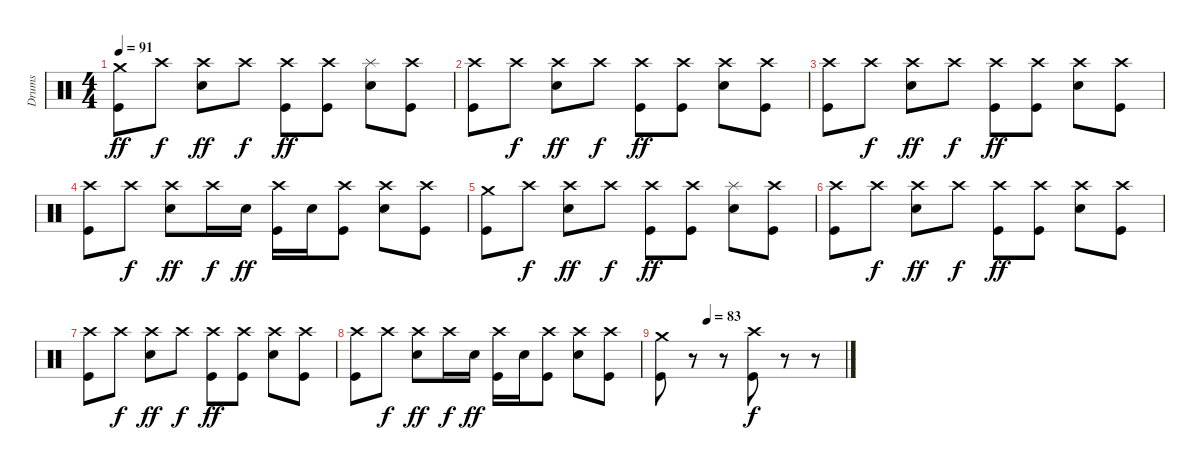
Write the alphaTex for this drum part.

\track ("Drums" "Drums") {instrument percussion}
\staff {score}
\articulation defaults
\ts (4 4)
\tempo 91
\clef neutral
\ks c
("Crash medium (hit)" "Kick (hit)").8{dy ff} "Crash high (hit)".8{dy f} ("Crash high (hit)" "Electric Snare (hit)").8{dy ff} "Crash high (hit)".8{dy f} ("Crash high (hit)" "Kick (hit)").8{dy ff} ("Crash high (hit)" "Kick (hit)").8 ("Splash (hit)" "Electric Snare (hit)").8 ("Crash high (hit)" "Kick (hit)").8 |
("Crash high (hit)" "Kick (hit)").8 "Crash high (hit)".8{dy f} ("Crash high (hit)" "Electric Snare (hit)").8{dy ff} "Crash high (hit)".8{dy f} ("Crash high (hit)" "Kick (hit)").8{dy ff} ("Crash high (hit)" "Kick (hit)").8 ("Crash high (hit)" "Electric Snare (hit)").8 ("Crash high (hit)" "Kick (hit)").8 |
("Crash high (hit)" "Kick (hit)").8 "Crash high (hit)".8{dy f} ("Crash high (hit)" "Electric Snare (hit)").8{dy ff} "Crash high (hit)".8{dy f} ("Crash high (hit)" "Kick (hit)").8{dy ff} ("Crash high (hit)" "Kick (hit)").8 ("Crash high (hit)" "Electric Snare (hit)").8 ("Crash high (hit)" "Kick (hit)").8 |
("Crash high (hit)" "Kick (hit)").8 "Crash high (hit)".8{dy f} ("Crash high (hit)" "Electric Snare (hit)").8{dy ff} "Crash high (hit)".16{dy f} "Electric Snare (hit)".16{dy ff} ("Crash high (hit)" "Kick (hit)").16 "Electric Snare (hit)".16 ("Crash high (hit)" "Kick (hit)").8 ("Crash high (hit)" "Electric Snare (hit)").8 ("Crash high (hit)" "Kick (hit)").8 |
("Crash medium (hit)" "Kick (hit)").8 "Crash high (hit)".8{dy f} ("Crash high (hit)" "Electric Snare (hit)").8{dy ff} "Crash high (hit)".8{dy f} ("Crash high (hit)" "Kick (hit)").8{dy ff} ("Crash high (hit)" "Kick (hit)").8 ("Splash (hit)" "Electric Snare (hit)").8 ("Crash high (hit)" "Kick (hit)").8 |
("Crash high (hit)" "Kick (hit)").8 "Crash high (hit)".8{dy f} ("Crash high (hit)" "Electric Snare (hit)").8{dy ff} "Crash high (hit)".8{dy f} ("Crash high (hit)" "Kick (hit)").8{dy ff} ("Crash high (hit)" "Kick (hit)").8 ("Crash high (hit)" "Electric Snare (hit)").8 ("Crash high (hit)" "Kick (hit)").8 |
("Crash high (hit)" "Kick (hit)").8 "Crash high (hit)".8{dy f} ("Crash high (hit)" "Electric Snare (hit)").8{dy ff} "Crash high (hit)".8{dy f} ("Crash high (hit)" "Kick (hit)").8{dy ff} ("Crash high (hit)" "Kick (hit)").8 ("Crash high (hit)" "Electric Snare (hit)").8 ("Crash high (hit)" "Kick (hit)").8 |
("Crash high (hit)" "Kick (hit)").8 "Crash high (hit)".8{dy f} ("Crash high (hit)" "Electric Snare (hit)").8{dy ff} "Crash high (hit)".16{dy f} "Electric Snare (hit)".16{dy ff} ("Crash high (hit)" "Kick (hit)").16 "Electric Snare (hit)".16 ("Crash high (hit)" "Kick (hit)").8 ("Crash high (hit)" "Electric Snare (hit)").8 ("Crash high (hit)" "Kick (hit)").8 |
\tempo (83 0.25)
("Crash medium (hit)" "Kick (hit)").8 r.8 r.8 ("Crash high (hit)" "Kick (hit)").8{dy f} r.8 r.8
